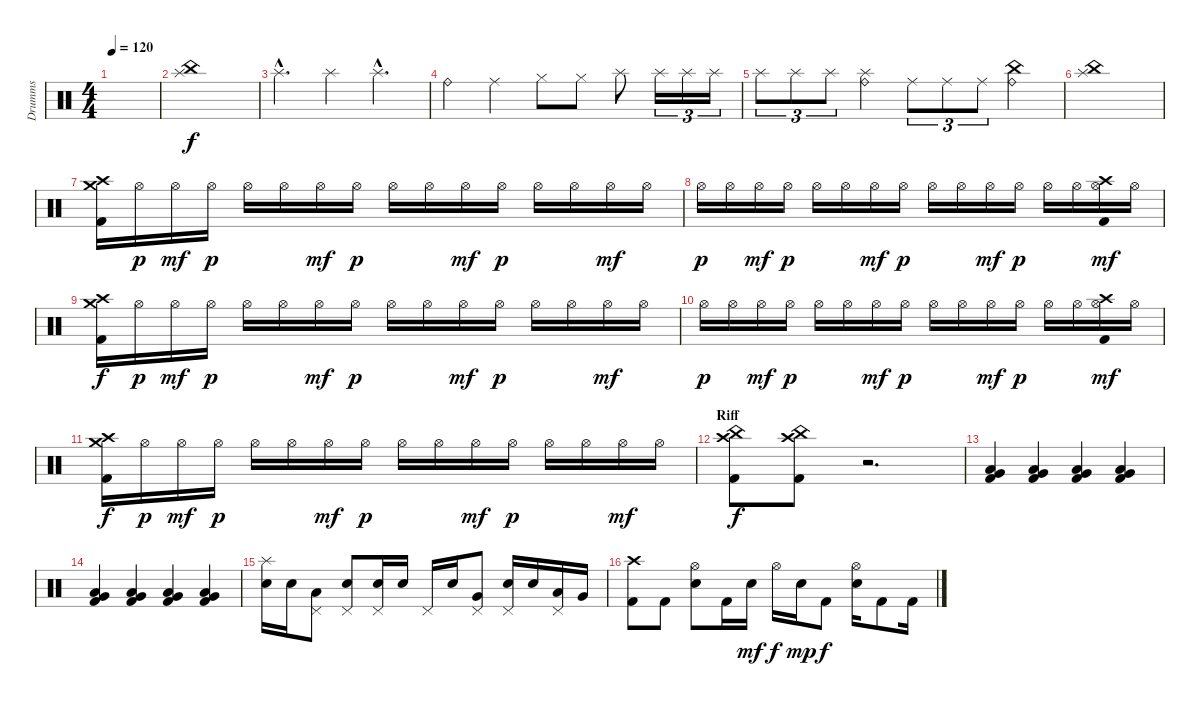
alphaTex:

\track ("Drumms" "Drumms") {instrument percussion}
\staff {score}
\articulation defaults
\ts (4 4)
\tempo 120
\clef neutral
\ks c
|
("China (hit)" "Splash (hit)").1 |
"Splash (hit)"{hac}.4{d} "Splash (hit)".4 "Splash (hit)"{hac}.4{d} |
"Ride (bell)".4 "Ride (middle)".4 "Hi-Hat (closed)".8 "Hi-Hat (closed)".8 "Splash (hit)".8 "Splash (hit)".16{tu (3 2)} "Splash (hit)".16{tu (3 2)} "Splash (hit)".16{tu (3 2)} |
"Splash (hit)".8{tu (3 2)} "Splash (hit)".8{tu (3 2)} "Splash (hit)".8{tu (3 2)} ("Ride (bell)" "Splash (hit)").4 "Ride (middle)".8{tu (3 2)} "Ride (middle)".8{tu (3 2)} "Ride (middle)".8{tu (3 2)} ("Ride (bell)" "China (hit)").4 |
("Splash (hit)" "China (hit)").1 |
("Crash high (hit)" "Crash medium (hit)" "Kick (hit) 2").16 "Hi-Hat (open)".16{dy p} "Hi-Hat (open)".16{dy mf} "Hi-Hat (open)".16{dy p} "Hi-Hat (open)".16 "Hi-Hat (open)".16 "Hi-Hat (open)".16{dy mf} "Hi-Hat (open)".16{dy p} "Hi-Hat (open)".16 "Hi-Hat (open)".16 "Hi-Hat (open)".16{dy mf} "Hi-Hat (open)".16{dy p} "Hi-Hat (open)".16 "Hi-Hat (open)".16 "Hi-Hat (open)".16{dy mf} "Hi-Hat (open)".16 |
"Hi-Hat (open)".16{dy p} "Hi-Hat (open)".16 "Hi-Hat (open)".16{dy mf} "Hi-Hat (open)".16{dy p} "Hi-Hat (open)".16 "Hi-Hat (open)".16 "Hi-Hat (open)".16{dy mf} "Hi-Hat (open)".16{dy p} "Hi-Hat (open)".16 "Hi-Hat (open)".16 "Hi-Hat (open)".16{dy mf} "Hi-Hat (open)".16{dy p} "Hi-Hat (open)".16 "Hi-Hat (open)".16 ("Crash high (hit)" "Hi-Hat (open)" "Kick (hit) 2").16{dy mf} "Hi-Hat (open)".16 |
("Crash high (hit)" "Crash medium (hit)" "Kick (hit) 2").16{dy f} "Hi-Hat (open)".16{dy p} "Hi-Hat (open)".16{dy mf} "Hi-Hat (open)".16{dy p} "Hi-Hat (open)".16 "Hi-Hat (open)".16 "Hi-Hat (open)".16{dy mf} "Hi-Hat (open)".16{dy p} "Hi-Hat (open)".16 "Hi-Hat (open)".16 "Hi-Hat (open)".16{dy mf} "Hi-Hat (open)".16{dy p} "Hi-Hat (open)".16 "Hi-Hat (open)".16 "Hi-Hat (open)".16{dy mf} "Hi-Hat (open)".16 |
"Hi-Hat (open)".16{dy p} "Hi-Hat (open)".16 "Hi-Hat (open)".16{dy mf} "Hi-Hat (open)".16{dy p} "Hi-Hat (open)".16 "Hi-Hat (open)".16 "Hi-Hat (open)".16{dy mf} "Hi-Hat (open)".16{dy p} "Hi-Hat (open)".16 "Hi-Hat (open)".16 "Hi-Hat (open)".16{dy mf} "Hi-Hat (open)".16{dy p} "Hi-Hat (open)".16 "Hi-Hat (open)".16 ("Crash high (hit)" "Hi-Hat (open)" "Kick (hit) 2").16{dy mf} "Hi-Hat (open)".16 |
("Crash high (hit)" "Crash medium (hit)" "Kick (hit) 2").16{dy f} "Hi-Hat (open)".16{dy p} "Hi-Hat (open)".16{dy mf} "Hi-Hat (open)".16{dy p} "Hi-Hat (open)".16 "Hi-Hat (open)".16 "Hi-Hat (open)".16{dy mf} "Hi-Hat (open)".16{dy p} "Hi-Hat (open)".16 "Hi-Hat (open)".16 "Hi-Hat (open)".16{dy mf} "Hi-Hat (open)".16{dy p} "Hi-Hat (open)".16 "Hi-Hat (open)".16 "Hi-Hat (open)".16{dy mf} "Hi-Hat (open)".16 |
\section ("" "Riff")
("Crash high (hit)" "China (hit)" "Kick (hit) 2").8{dy f} ("Crash high (hit)" "China (hit)" "Kick (hit) 2").8 r.2{d} |
("Low Tom (hit)" "Very Low Tom (hit)" "Kick (hit) 2").4 ("Low Floor Tom (hit)" "Very Low Tom (hit)" "Kick (hit) 2").4 ("Low Tom (hit)" "Very Low Tom (hit)" "Kick (hit) 2").4 ("Low Floor Tom (hit)" "Very Low Tom (hit)" "Kick (hit) 2").4 |
("Low Tom (hit)" "Very Low Tom (hit)" "Kick (hit) 2").4 ("Low Floor Tom (hit)" "Very Low Tom (hit)" "Kick (hit) 2").4 ("Low Tom (hit)" "Very Low Tom (hit)" "Kick (hit) 2").4 ("Low Floor Tom (hit)" "Very Low Tom (hit)" "Kick (hit) 2").4 |
("Splash (hit)" "Electric Snare (hit)").16 "Electric Snare (hit)".16 ("Pedal Hi-Hat (hit)" "Low Tom (hit)").8 ("Pedal Hi-Hat (hit)" "Electric Snare (hit)").8 ("Pedal Hi-Hat (hit)" "Electric Snare (hit)").16 "Electric Snare (hit)".16 "Pedal Hi-Hat (hit)".16 "Electric Snare (hit)".16 ("Pedal Hi-Hat (hit)" "Very Low Tom (hit)").8 ("Pedal Hi-Hat (hit)" "Electric Snare (hit)").16 "Electric Snare (hit)".16 ("Pedal Hi-Hat (hit)" "Low Tom (hit)").16 "Very Low Tom (hit)".16 |
("Crash high (hit)" "Kick (hit) 2").8 "Kick (hit) 2".8 ("Hi-Hat (open)" "Electric Snare (hit)").8 "Kick (hit) 2".16 "Electric Snare (hit)".16{dy mf} "Hi-Hat (open)".16{dy f} "Electric Snare (hit)".16{dy mp} "Kick (hit) 2".8{dy f} ("Hi-Hat (open)" "Electric Snare (hit)").16 "Kick (hit) 2".8 "Kick (hit) 2".16
